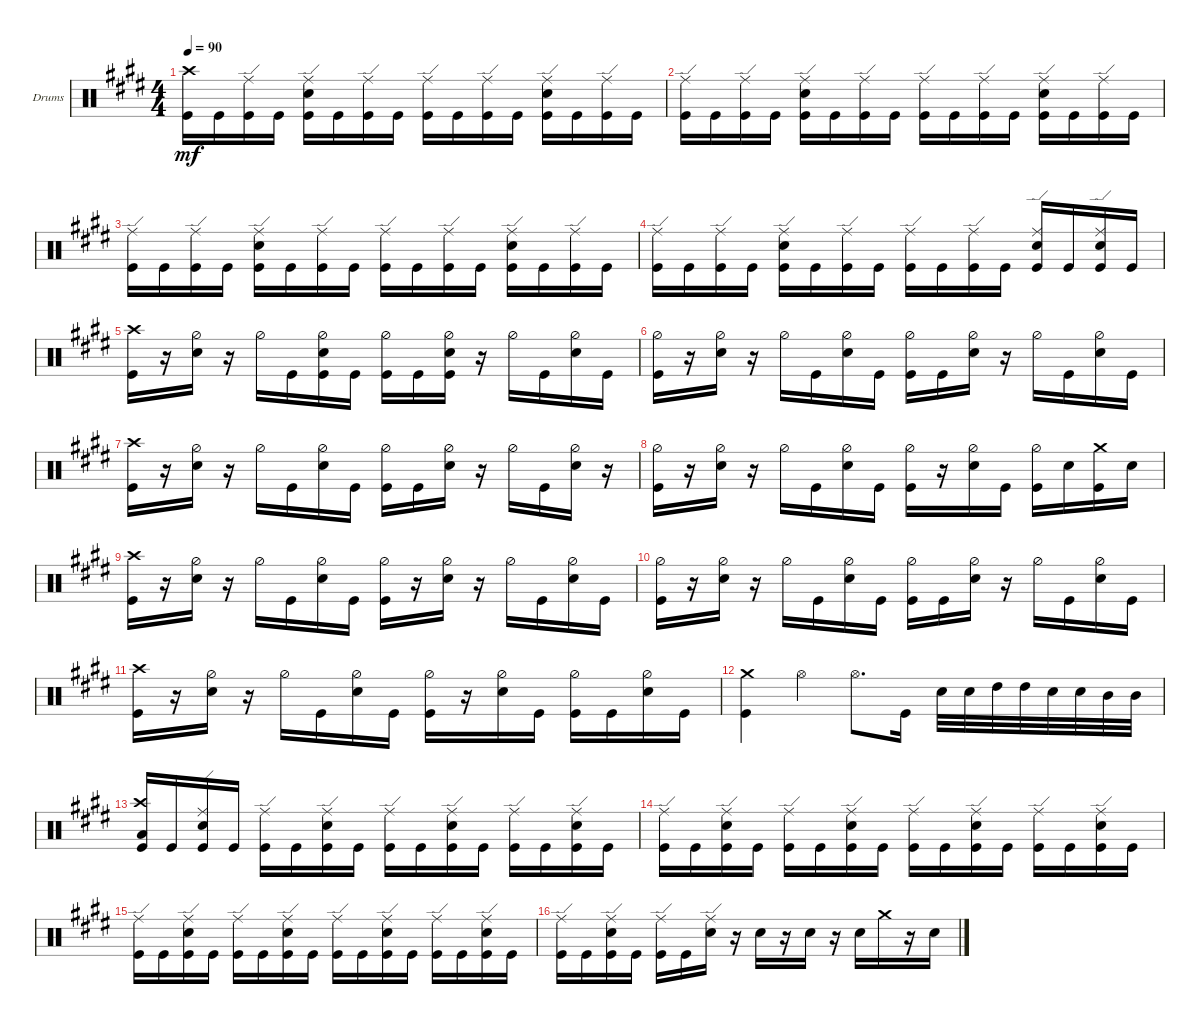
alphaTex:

\defaultSystemsLayout 4
\bracketExtendMode groupsimilarinstruments
\firstSystemTrackNameOrientation horizontal
\otherSystemsTrackNameOrientation horizontal
\track ("Drumkit" "Drums") {instrument percussion}
\staff {score}
\articulation defaults
\ts (4 4)
\tempo 90
\clef neutral
\ks e
("Kick (hit)" "Crash high (hit)").16{dy mf} "Kick (hit)".16 ("Ride (edge)" "Kick (hit)").16 "Kick (hit)".16 ("Kick (hit)" "Ride (edge)" "Snare (hit) 2").16 "Kick (hit)".16 ("Ride (edge)" "Kick (hit)").16 "Kick (hit)".16 ("Kick (hit)" "Ride (edge)").16 "Kick (hit)".16 ("Ride (edge)" "Kick (hit)").16 "Kick (hit)".16 ("Kick (hit)" "Ride (edge)" "Snare (hit) 2").16 "Kick (hit)".16 ("Ride (edge)" "Kick (hit)").16 "Kick (hit)".16 |
("Kick (hit)" "Ride (edge)").16 "Kick (hit)".16 ("Ride (edge)" "Kick (hit)").16 "Kick (hit)".16 ("Kick (hit)" "Ride (edge)" "Snare (hit) 2").16 "Kick (hit)".16 ("Ride (edge)" "Kick (hit)").16 "Kick (hit)".16 ("Kick (hit)" "Ride (edge)").16 "Kick (hit)".16 ("Ride (edge)" "Kick (hit)").16 "Kick (hit)".16 ("Kick (hit)" "Ride (edge)" "Snare (hit) 2").16 "Kick (hit)".16 ("Ride (edge)" "Kick (hit)").16 "Kick (hit)".16 |
("Kick (hit)" "Ride (edge)").16 "Kick (hit)".16 ("Ride (edge)" "Kick (hit)").16 "Kick (hit)".16 ("Kick (hit)" "Ride (edge)" "Snare (hit) 2").16 "Kick (hit)".16 ("Ride (edge)" "Kick (hit)").16 "Kick (hit)".16 ("Kick (hit)" "Ride (edge)").16 "Kick (hit)".16 ("Ride (edge)" "Kick (hit)").16 "Kick (hit)".16 ("Kick (hit)" "Ride (edge)" "Snare (hit) 2").16 "Kick (hit)".16 ("Ride (edge)" "Kick (hit)").16 "Kick (hit)".16 |
("Kick (hit)" "Ride (edge)").16 "Kick (hit)".16 ("Ride (edge)" "Kick (hit)").16 "Kick (hit)".16 ("Kick (hit)" "Ride (edge)" "Snare (hit) 2").16 "Kick (hit)".16 ("Ride (edge)" "Kick (hit)").16 "Kick (hit)".16 ("Kick (hit)" "Ride (edge)").16 "Kick (hit)".16 ("Ride (edge)" "Kick (hit)").16 "Kick (hit)".16 ("Kick (hit)" "Ride (edge)" "Snare (hit) 2").16 "Kick (hit)".16 ("Ride (edge)" "Kick (hit)" "Snare (hit) 2").16 "Kick (hit)".16 |
("Crash high (hit)" "Kick (hit)").16 r.16 ("Snare (hit) 2" "Hi-Hat (half)").16 r.16 "Hi-Hat (half)".16 "Kick (hit)".16 ("Snare (hit) 2" "Hi-Hat (half)" "Kick (hit)").16 "Kick (hit)".16 ("Kick (hit)" "Hi-Hat (half)").16 "Kick (hit)".16 ("Snare (hit) 2" "Hi-Hat (half)" "Kick (hit)").16 r.16 "Hi-Hat (half)".16 "Kick (hit)".16 ("Snare (hit) 2" "Hi-Hat (half)").16 "Kick (hit)".16 |
("Kick (hit)" "Hi-Hat (half)").16 r.16 ("Snare (hit) 2" "Hi-Hat (half)").16 r.16 "Hi-Hat (half)".16 "Kick (hit)".16 ("Snare (hit) 2" "Hi-Hat (half)").16 "Kick (hit)".16 ("Kick (hit)" "Hi-Hat (half)").16 "Kick (hit)".16 ("Snare (hit) 2" "Hi-Hat (half)").16 r.16 "Hi-Hat (half)".16 "Kick (hit)".16 ("Snare (hit) 2" "Hi-Hat (half)").16 "Kick (hit)".16 |
("Kick (hit)" "Crash high (hit)").16 r.16 ("Snare (hit) 2" "Hi-Hat (half)").16 r.16 "Hi-Hat (half)".16 "Kick (hit)".16 ("Snare (hit) 2" "Hi-Hat (half)").16 "Kick (hit)".16 ("Kick (hit)" "Hi-Hat (half)").16 "Kick (hit)".16 ("Snare (hit) 2" "Hi-Hat (half)").16 r.16 "Hi-Hat (half)".16 "Kick (hit)".16 ("Snare (hit) 2" "Hi-Hat (half)").16 r.16 |
("Kick (hit)" "Hi-Hat (half)").16 r.16 ("Snare (hit) 2" "Hi-Hat (half)").16 r.16 "Hi-Hat (half)".16 "Kick (hit)".16 ("Snare (hit) 2" "Hi-Hat (half)").16 "Kick (hit)".16 ("Kick (hit)" "Hi-Hat (half)").16 r.16 ("Snare (hit) 2" "Hi-Hat (half)").16 "Kick (hit)".16 ("Kick (hit)" "Hi-Hat (half)").16 "Snare (hit) 2".16 ("Kick (hit)" "Crash medium (hit)").16 "Snare (hit) 2".16 |
("Kick (hit)" "Crash high (hit)").16 r.16 ("Snare (hit) 2" "Hi-Hat (half)").16 r.16 "Hi-Hat (half)".16 "Kick (hit)".16 ("Snare (hit) 2" "Hi-Hat (half)").16 "Kick (hit)".16 ("Hi-Hat (half)" "Kick (hit)").16 r.16 ("Snare (hit) 2" "Hi-Hat (half)").16 r.16 "Hi-Hat (half)".16 "Kick (hit)".16 ("Snare (hit) 2" "Hi-Hat (half)").16 "Kick (hit)".16 |
("Kick (hit)" "Hi-Hat (half)").16 r.16 ("Snare (hit) 2" "Hi-Hat (half)").16 r.16 "Hi-Hat (half)".16 "Kick (hit)".16 ("Snare (hit) 2" "Hi-Hat (half)").16 "Kick (hit)".16 ("Hi-Hat (half)" "Kick (hit)").16 "Kick (hit)".16 ("Snare (hit) 2" "Hi-Hat (half)").16 r.16 "Hi-Hat (half)".16 "Kick (hit)".16 ("Snare (hit) 2" "Hi-Hat (half)").16 "Kick (hit)".16 |
("Kick (hit)" "Crash high (hit)").16 r.16 ("Snare (hit) 2" "Hi-Hat (half)").16 r.16 "Hi-Hat (half)".16 "Kick (hit)".16 ("Snare (hit) 2" "Hi-Hat (half)").16 "Kick (hit)".16 ("Hi-Hat (half)" "Kick (hit)").16 r.16 ("Snare (hit) 2" "Hi-Hat (half)").16 "Kick (hit)".16 ("Kick (hit)" "Hi-Hat (half)").16 "Kick (hit)".16 ("Snare (hit) 2" "Hi-Hat (half)").16 "Kick (hit)".16 |
("Kick (hit)" "Crash medium (hit)").4 "Hi-Hat (open)".4 "Hi-Hat (open)".8{d} "Kick (hit)".16 "Snare (hit) 2".32 "Snare (hit) 2".32 "High Tom (hit)".32 "High Tom (hit)".32 "Snare (hit) 2".32 "Snare (hit) 2".32 "Mid Tom (hit)".32 "Mid Tom (hit)".32 |
("Kick (hit)" "Crash high (hit)" "Low Tom (hit)").16 "Kick (hit)".16 ("Snare (hit) 2" "Ride (edge)" "Kick (hit)").16 "Kick (hit)".16 ("Kick (hit)" "Ride (edge)").16 "Kick (hit)".16 ("Snare (hit) 2" "Ride (edge)" "Kick (hit)").16 "Kick (hit)".16 ("Kick (hit)" "Ride (edge)").16 "Kick (hit)".16 ("Snare (hit) 2" "Ride (edge)" "Kick (hit)").16 "Kick (hit)".16 ("Kick (hit)" "Ride (edge)").16 "Kick (hit)".16 ("Snare (hit) 2" "Ride (edge)" "Kick (hit)").16 "Kick (hit)".16 |
("Kick (hit)" "Ride (edge)").16 "Kick (hit)".16 ("Snare (hit) 2" "Ride (edge)" "Kick (hit)").16 "Kick (hit)".16 ("Kick (hit)" "Ride (edge)").16 "Kick (hit)".16 ("Snare (hit) 2" "Ride (edge)" "Kick (hit)").16 "Kick (hit)".16 ("Kick (hit)" "Ride (edge)").16 "Kick (hit)".16 ("Snare (hit) 2" "Ride (edge)" "Kick (hit)").16 "Kick (hit)".16 ("Kick (hit)" "Ride (edge)").16 "Kick (hit)".16 ("Snare (hit) 2" "Ride (edge)" "Kick (hit)").16 "Kick (hit)".16 |
("Kick (hit)" "Ride (edge)").16 "Kick (hit)".16 ("Snare (hit) 2" "Ride (edge)" "Kick (hit)").16 "Kick (hit)".16 ("Kick (hit)" "Ride (edge)").16 "Kick (hit)".16 ("Snare (hit) 2" "Ride (edge)" "Kick (hit)").16 "Kick (hit)".16 ("Kick (hit)" "Ride (edge)").16 "Kick (hit)".16 ("Snare (hit) 2" "Ride (edge)" "Kick (hit)").16 "Kick (hit)".16 ("Kick (hit)" "Ride (edge)").16 "Kick (hit)".16 ("Snare (hit) 2" "Ride (edge)" "Kick (hit)").16 "Kick (hit)".16 |
("Kick (hit)" "Ride (edge)").16 "Kick (hit)".16 ("Snare (hit) 2" "Ride (edge)" "Kick (hit)").16 "Kick (hit)".16 ("Kick (hit)" "Ride (edge)").16 "Kick (hit)".16 ("Snare (hit) 2" "Ride (edge)").16 r.16 "Snare (hit) 2".16 r.16 "Snare (hit) 2".16 r.16 "Snare (hit) 2".16 "Crash medium (hit)".16 r.16 "Snare (hit) 2".16
